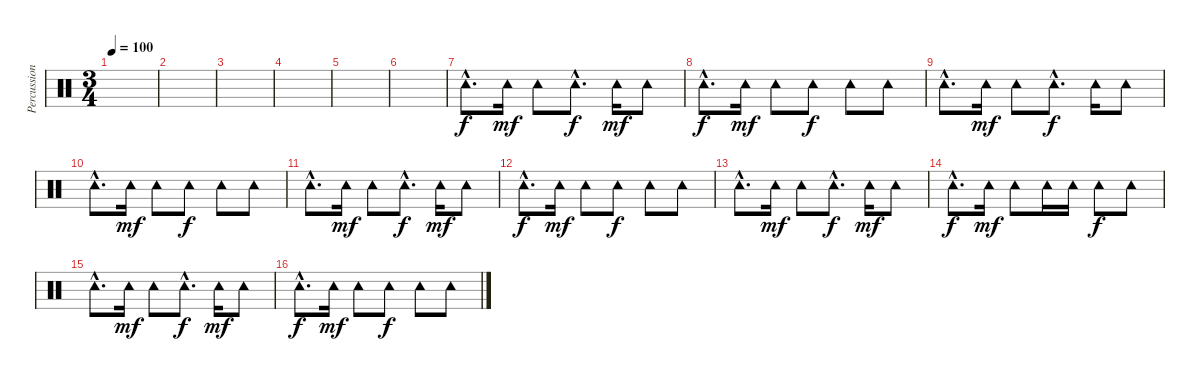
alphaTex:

\track ("Percussion" "Percussion") {instrument percussion}
\staff {score}
\articulation defaults
\ts (3 4)
\tempo 100
\clef neutral
\ks c
|
|
|
|
|
|
"Tambourine (hit)"{hac}.8{d} "Tambourine (hit)".16{dy mf} "Tambourine (hit)".8 "Tambourine (hit)"{hac}.8{d dy f} "Tambourine (hit)".16{dy mf} "Tambourine (hit)".8 |
"Tambourine (hit)"{hac}.8{d dy f} "Tambourine (hit)".16{dy mf} "Tambourine (hit)".8 "Tambourine (hit)".8{dy f} "Tambourine (hit)".8 "Tambourine (hit)".8 |
"Tambourine (hit)"{hac}.8{d} "Tambourine (hit)".16{dy mf} "Tambourine (hit)".8 "Tambourine (hit)"{hac}.8{d dy f} "Tambourine (hit)".16 "Tambourine (hit)".8 |
"Tambourine (hit)"{hac}.8{d} "Tambourine (hit)".16{dy mf} "Tambourine (hit)".8 "Tambourine (hit)".8{dy f} "Tambourine (hit)".8 "Tambourine (hit)".8 |
"Tambourine (hit)"{hac}.8{d} "Tambourine (hit)".16{dy mf} "Tambourine (hit)".8 "Tambourine (hit)"{hac}.8{d dy f} "Tambourine (hit)".16{dy mf} "Tambourine (hit)".8 |
"Tambourine (hit)"{hac}.8{d dy f} "Tambourine (hit)".16{dy mf} "Tambourine (hit)".8 "Tambourine (hit)".8{dy f} "Tambourine (hit)".8 "Tambourine (hit)".8 |
"Tambourine (hit)"{hac}.8{d} "Tambourine (hit)".16{dy mf} "Tambourine (hit)".8 "Tambourine (hit)"{hac}.8{d dy f} "Tambourine (hit)".16{dy mf} "Tambourine (hit)".8 |
"Tambourine (hit)"{hac}.8{d dy f} "Tambourine (hit)".16{dy mf} "Tambourine (hit)".8 "Tambourine (hit)".16 "Tambourine (hit)".16 "Tambourine (hit)".8{dy f} "Tambourine (hit)".8 |
"Tambourine (hit)"{hac}.8{d} "Tambourine (hit)".16{dy mf} "Tambourine (hit)".8 "Tambourine (hit)"{hac}.8{d dy f} "Tambourine (hit)".16{dy mf} "Tambourine (hit)".8 |
"Tambourine (hit)"{hac}.8{d dy f} "Tambourine (hit)".16{dy mf} "Tambourine (hit)".8 "Tambourine (hit)".8{dy f} "Tambourine (hit)".8 "Tambourine (hit)".8
